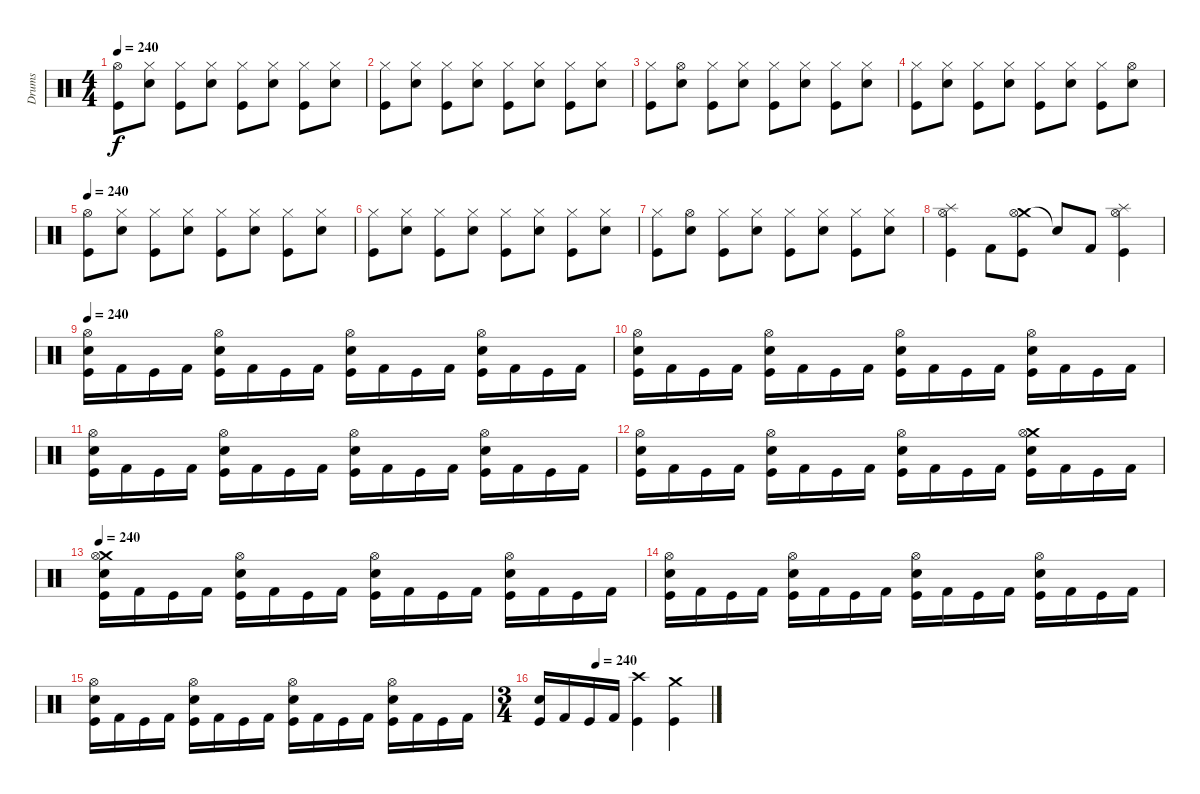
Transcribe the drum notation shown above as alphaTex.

\track ("Drums" "Drums") {instrument percussion}
\staff {score}
\articulation defaults
\ts (4 4)
\tempo 240
\clef neutral
\ks c
("Hi-Hat (open)" "Kick (hit)").8{dy f} ("Hi-Hat (closed)" "Electric Snare (hit)").8 ("Hi-Hat (closed)" "Kick (hit)").8 ("Hi-Hat (closed)" "Electric Snare (hit)").8 ("Hi-Hat (closed)" "Kick (hit)").8 ("Hi-Hat (closed)" "Electric Snare (hit)").8 ("Hi-Hat (closed)" "Kick (hit)").8 ("Hi-Hat (closed)" "Electric Snare (hit)").8 |
("Hi-Hat (closed)" "Kick (hit)").8 ("Hi-Hat (closed)" "Electric Snare (hit)").8 ("Hi-Hat (closed)" "Kick (hit)").8 ("Hi-Hat (closed)" "Electric Snare (hit)").8 ("Hi-Hat (closed)" "Kick (hit)").8 ("Hi-Hat (closed)" "Electric Snare (hit)").8 ("Hi-Hat (closed)" "Kick (hit)").8 ("Hi-Hat (closed)" "Electric Snare (hit)").8 |
("Hi-Hat (closed)" "Kick (hit)").8 ("Hi-Hat (open)" "Electric Snare (hit)").8 ("Hi-Hat (closed)" "Kick (hit)").8 ("Hi-Hat (closed)" "Electric Snare (hit)").8 ("Hi-Hat (closed)" "Kick (hit)").8 ("Hi-Hat (closed)" "Electric Snare (hit)").8 ("Hi-Hat (closed)" "Kick (hit)").8 ("Hi-Hat (closed)" "Electric Snare (hit)").8 |
("Hi-Hat (closed)" "Kick (hit)").8 ("Hi-Hat (closed)" "Electric Snare (hit)").8 ("Hi-Hat (closed)" "Kick (hit)").8 ("Hi-Hat (closed)" "Electric Snare (hit)").8 ("Hi-Hat (closed)" "Kick (hit)").8 ("Hi-Hat (closed)" "Electric Snare (hit)").8 ("Hi-Hat (closed)" "Kick (hit)").8 ("Hi-Hat (open)" "Electric Snare (hit)").8 |
\tempo 240
("Hi-Hat (open)" "Kick (hit)").8 ("Hi-Hat (closed)" "Electric Snare (hit)").8 ("Hi-Hat (closed)" "Kick (hit)").8 ("Hi-Hat (closed)" "Electric Snare (hit)").8 ("Hi-Hat (closed)" "Kick (hit)").8 ("Hi-Hat (closed)" "Electric Snare (hit)").8 ("Hi-Hat (closed)" "Kick (hit)").8 ("Hi-Hat (closed)" "Electric Snare (hit)").8 |
("Hi-Hat (closed)" "Kick (hit)").8 ("Hi-Hat (closed)" "Electric Snare (hit)").8 ("Hi-Hat (closed)" "Kick (hit)").8 ("Hi-Hat (closed)" "Electric Snare (hit)").8 ("Hi-Hat (closed)" "Kick (hit)").8 ("Hi-Hat (closed)" "Electric Snare (hit)").8 ("Hi-Hat (closed)" "Kick (hit)").8 ("Hi-Hat (closed)" "Electric Snare (hit)").8 |
("Hi-Hat (closed)" "Kick (hit)").8 ("Hi-Hat (open)" "Electric Snare (hit)").8 ("Hi-Hat (closed)" "Kick (hit)").8 ("Hi-Hat (closed)" "Electric Snare (hit)").8 ("Hi-Hat (closed)" "Kick (hit)").8 ("Hi-Hat (closed)" "Electric Snare (hit)").8 ("Hi-Hat (closed)" "Kick (hit)").8 ("Hi-Hat (closed)" "Electric Snare (hit)").8 |
("Splash (hit)" "Hi-Hat (open)" "Kick (hit)").4 "Kick (hit) 2".8 ("Crash medium (hit)" "Hi-Hat (open)" "Kick (hit)").8 "Snare (hit)"{t}.8 "Kick (hit) 2".8 ("Splash (hit)" "Hi-Hat (open)" "Kick (hit)").4 |
\tempo 240
("Hi-Hat (open)" "Electric Snare (hit)" "Kick (hit)").16 "Kick (hit) 2".16 "Kick (hit)".16 "Kick (hit) 2".16 ("Hi-Hat (open)" "Electric Snare (hit)" "Kick (hit)").16 "Kick (hit) 2".16 "Kick (hit)".16 "Kick (hit) 2".16 ("Hi-Hat (open)" "Electric Snare (hit)" "Kick (hit)").16 "Kick (hit) 2".16 "Kick (hit)".16 "Kick (hit) 2".16 ("Hi-Hat (open)" "Electric Snare (hit)" "Kick (hit)").16 "Kick (hit) 2".16 "Kick (hit)".16 "Kick (hit) 2".16 |
("Hi-Hat (open)" "Electric Snare (hit)" "Kick (hit)").16 "Kick (hit) 2".16 "Kick (hit)".16 "Kick (hit) 2".16 ("Hi-Hat (open)" "Electric Snare (hit)" "Kick (hit)").16 "Kick (hit) 2".16 "Kick (hit)".16 "Kick (hit) 2".16 ("Hi-Hat (open)" "Electric Snare (hit)" "Kick (hit)").16 "Kick (hit) 2".16 "Kick (hit)".16 "Kick (hit) 2".16 ("Hi-Hat (open)" "Electric Snare (hit)" "Kick (hit)").16 "Kick (hit) 2".16 "Kick (hit)".16 "Kick (hit) 2".16 |
("Hi-Hat (open)" "Electric Snare (hit)" "Kick (hit)").16 "Kick (hit) 2".16 "Kick (hit)".16 "Kick (hit) 2".16 ("Hi-Hat (open)" "Electric Snare (hit)" "Kick (hit)").16 "Kick (hit) 2".16 "Kick (hit)".16 "Kick (hit) 2".16 ("Hi-Hat (open)" "Electric Snare (hit)" "Kick (hit)").16 "Kick (hit) 2".16 "Kick (hit)".16 "Kick (hit) 2".16 ("Hi-Hat (open)" "Electric Snare (hit)" "Kick (hit)").16 "Kick (hit) 2".16 "Kick (hit)".16 "Kick (hit) 2".16 |
("Hi-Hat (open)" "Electric Snare (hit)" "Kick (hit)").16 "Kick (hit) 2".16 "Kick (hit)".16 "Kick (hit) 2".16 ("Hi-Hat (open)" "Electric Snare (hit)" "Kick (hit)").16 "Kick (hit) 2".16 "Kick (hit)".16 "Kick (hit) 2".16 ("Hi-Hat (open)" "Electric Snare (hit)" "Kick (hit)").16 "Kick (hit) 2".16 "Kick (hit)".16 "Kick (hit) 2".16 ("Crash medium (hit)" "Hi-Hat (open)" "Electric Snare (hit)" "Kick (hit)").16 "Kick (hit) 2".16 "Kick (hit)".16 "Kick (hit) 2".16 |
\tempo 240
("Crash medium (hit)" "Hi-Hat (open)" "Electric Snare (hit)" "Kick (hit)").16 "Kick (hit) 2".16 "Kick (hit)".16 "Kick (hit) 2".16 ("Hi-Hat (open)" "Electric Snare (hit)" "Kick (hit)").16 "Kick (hit) 2".16 "Kick (hit)".16 "Kick (hit) 2".16 ("Hi-Hat (open)" "Electric Snare (hit)" "Kick (hit)").16 "Kick (hit) 2".16 "Kick (hit)".16 "Kick (hit) 2".16 ("Hi-Hat (open)" "Electric Snare (hit)" "Kick (hit)").16 "Kick (hit) 2".16 "Kick (hit)".16 "Kick (hit) 2".16 |
("Hi-Hat (open)" "Electric Snare (hit)" "Kick (hit)").16 "Kick (hit) 2".16 "Kick (hit)".16 "Kick (hit) 2".16 ("Hi-Hat (open)" "Electric Snare (hit)" "Kick (hit)").16 "Kick (hit) 2".16 "Kick (hit)".16 "Kick (hit) 2".16 ("Hi-Hat (open)" "Electric Snare (hit)" "Kick (hit)").16 "Kick (hit) 2".16 "Kick (hit)".16 "Kick (hit) 2".16 ("Hi-Hat (open)" "Electric Snare (hit)" "Kick (hit)").16 "Kick (hit) 2".16 "Kick (hit)".16 "Kick (hit) 2".16 |
("Hi-Hat (open)" "Electric Snare (hit)" "Kick (hit)").16 "Kick (hit) 2".16 "Kick (hit)".16 "Kick (hit) 2".16 ("Hi-Hat (open)" "Electric Snare (hit)" "Kick (hit)").16 "Kick (hit) 2".16 "Kick (hit)".16 "Kick (hit) 2".16 ("Hi-Hat (open)" "Electric Snare (hit)" "Kick (hit)").16 "Kick (hit) 2".16 "Kick (hit)".16 "Kick (hit) 2".16 ("Hi-Hat (open)" "Electric Snare (hit)" "Kick (hit)").16 "Kick (hit) 2".16 "Kick (hit)".16 "Kick (hit) 2".16 |
\ts (3 4)
\tempo (240 0.3333333333333333)
("Electric Snare (hit)" "Kick (hit)").16 "Kick (hit) 2".16 "Kick (hit)".16 "Kick (hit) 2".16 ("Crash high (hit)" "Kick (hit)").4 ("Crash medium (hit)" "Kick (hit)").4
